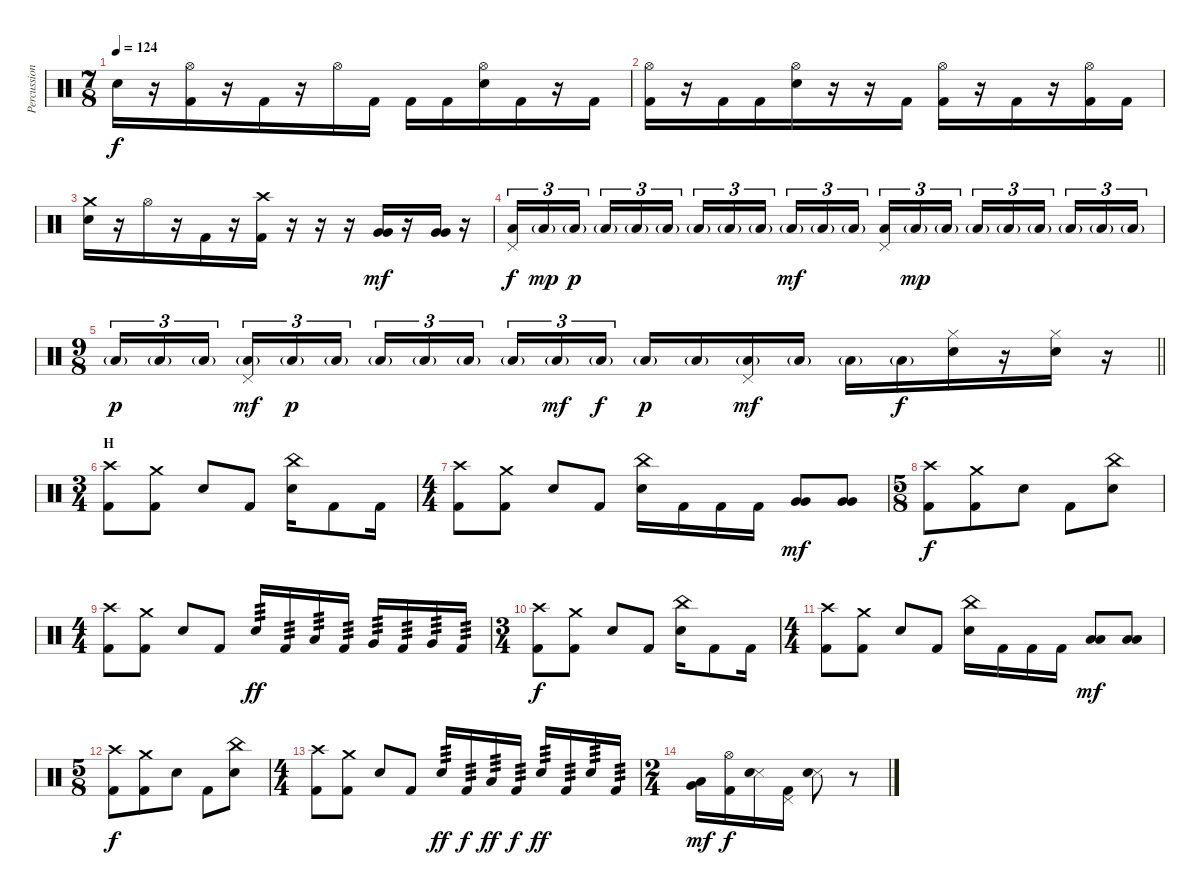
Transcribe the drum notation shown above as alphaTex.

\track ("Percussion" "Percussion") {instrument percussion}
\staff {score}
\articulation defaults
\ts (7 8)
\tempo 124
\clef neutral
\ks c "Snare (hit) 2".16{dy f}
r.16 ("Hi-Hat (open)" "Kick (hit) 2").16 r.16 "Kick (hit) 2".16 r.16 "Hi-Hat (open)".16 "Kick (hit) 2".16 "Kick (hit) 2".16 "Kick (hit) 2".16 ("Hi-Hat (open)" "Snare (hit) 2").16 "Kick (hit) 2".16 r.16 "Kick (hit) 2".16 |
("Hi-Hat (open)" "Kick (hit) 2").16 r.16 "Kick (hit) 2".16 "Kick (hit) 2".16 ("Hi-Hat (open)" "Snare (hit) 2").16 r.16 r.16 "Kick (hit) 2".16 ("Hi-Hat (open)" "Kick (hit) 2").16 r.16 "Kick (hit) 2".16 r.16 ("Hi-Hat (open)" "Kick (hit) 2").16 "Kick (hit) 2".16 |
("Crash medium (hit)" "Snare (hit) 2").16 r.16 "Hi-Hat (open)".16 r.16 "Kick (hit) 2".16 r.16 ("Crash high (hit)" "Kick (hit) 2").16 r.16 r.16 r.16 ("Very Low Tom (hit)" "Very Low Tom (hit)").16{bu 60 dy mf} r.16 ("Very Low Tom (hit)" "Very Low Tom (hit)").16{bu 60} r.16 |
("Pedal Hi-Hat (hit)" "Low Tom (hit)").16{tu (3 2) dy f} "Low Tom (hit)"{g}.16{tu (3 2) dy mp} "Low Tom (hit)"{g}.16{tu (3 2) dy p} "Low Tom (hit)"{g}.16{tu (3 2)} "Low Tom (hit)"{g}.16{tu (3 2)} "Low Tom (hit)"{g}.16{tu (3 2)} "Low Tom (hit)"{g}.16{tu (3 2)} "Low Tom (hit)"{g}.16{tu (3 2)} "Low Tom (hit)"{g}.16{tu (3 2)} "Low Tom (hit)"{g}.16{tu (3 2) dy mf} "Low Tom (hit)"{g}.16{tu (3 2)} "Low Tom (hit)"{g}.16{tu (3 2)} ("Pedal Hi-Hat (hit)" "Low Tom (hit)").16{tu (3 2)} "Low Tom (hit)"{g}.16{tu (3 2) dy mp} "Low Tom (hit)"{g}.16{tu (3 2)} "Low Tom (hit)"{g}.16{tu (3 2)} "Low Tom (hit)"{g}.16{tu (3 2)} "Low Tom (hit)"{g}.16{tu (3 2)} "Low Tom (hit)"{g}.16{tu (3 2)} "Low Tom (hit)"{g}.16{tu (3 2)} "Low Tom (hit)"{g}.16{tu (3 2)} |
\ts (9 8)
\barLineRight lightlight "Low Tom (hit)"{g}.16{tu (3 2) dy p} "Low Tom (hit)"{g}.16{tu (3 2)} "Low Tom (hit)"{g}.16{tu (3 2) beam splitsecondary}
("Pedal Hi-Hat (hit)" "Low Tom (hit)"{g}).16{tu (3 2) dy mf} "Low Tom (hit)"{g}.16{tu (3 2) dy p} "Low Tom (hit)"{g}.16{tu (3 2) beam splitsecondary} "Low Tom (hit)"{g}.16{tu (3 2)} "Low Tom (hit)"{g}.16{tu (3 2)} "Low Tom (hit)"{g}.16{tu (3 2)} "Low Tom (hit)"{g}.16{tu (3 2)} "Low Tom (hit)"{g}.16{tu (3 2) dy mf} "Low Tom (hit)"{g}.16{tu (3 2) dy f beam splitsecondary} "Low Tom (hit)"{g}.16{dy p} "Low Tom (hit)"{g}.16 ("Pedal Hi-Hat (hit)" "Low Tom (hit)"{g}).16{dy mf} "Low Tom (hit)"{g}.16 "Low Tom (hit)"{g}.16 "Low Tom (hit)"{g}.16{dy f} ("Hi-Hat (closed)" "Snare (hit) 2").16 r.16 ("Hi-Hat (closed)" "Snare (hit) 2").16 r.16 |
\ts (3 4)
\section ("" "H")
("Crash high (hit)" "Kick (hit) 2").8 ("Crash medium (hit)" "Kick (hit) 2").8 "Snare (hit)".8 "Kick (hit) 2".8 ("China (hit)" "Snare (hit) 2").16 "Kick (hit) 2".8 "Kick (hit) 2".16 |
\ts (4 4)
("Crash high (hit)" "Kick (hit) 2").8 ("Crash medium (hit)" "Kick (hit) 2").8 "Snare (hit)".8 "Kick (hit) 2".8 ("China (hit)" "Snare (hit) 2").16 "Kick (hit) 2".16 "Kick (hit) 2".16 "Kick (hit) 2".16 ("Very Low Tom (hit)" "Very Low Tom (hit)").8{bu 60 dy mf} ("Very Low Tom (hit)" "Very Low Tom (hit)").8{bu 60} |
\ts (5 8)
("Crash high (hit)" "Kick (hit) 2").8{dy f} ("Crash medium (hit)" "Kick (hit) 2").8 "Snare (hit)".8 "Kick (hit) 2".8 ("China (hit)" "Snare (hit) 2").8 |
\ts (4 4)
("Crash high (hit)" "Kick (hit) 2").8 ("Crash medium (hit)" "Kick (hit) 2").8 "Snare (hit)".8 "Kick (hit) 2".8 "Snare (hit) 2".16{tp 3 dy ff} "Kick (hit) 2".16{tp 3} "Low Tom (hit)".16{tp 3} "Kick (hit) 2".16{tp 3} "Very Low Tom (hit)".16{tp 3} "Kick (hit) 2".16{tp 3} "Very Low Tom (hit)".16{tp 3} "Kick (hit) 2".16{tp 3} |
\ts (3 4)
("Crash high (hit)" "Kick (hit) 2").8{dy f} ("Crash medium (hit)" "Kick (hit) 2").8 "Snare (hit)".8 "Kick (hit) 2".8 ("China (hit)" "Snare (hit) 2").16 "Kick (hit) 2".8 "Kick (hit) 2".16 |
\ts (4 4)
("Crash high (hit)" "Kick (hit) 2").8 ("Crash medium (hit)" "Kick (hit) 2").8 "Snare (hit)".8 "Kick (hit) 2".8 ("China (hit)" "Snare (hit) 2").16 "Kick (hit) 2".16 "Kick (hit) 2".16 "Kick (hit) 2".16 ("Low Tom (hit)" "Low Tom (hit)").8{bu 60 dy mf} ("Low Tom (hit)" "Low Tom (hit)").8{bu 60} |
\ts (5 8)
("Crash high (hit)" "Kick (hit) 2").8{dy f} ("Crash medium (hit)" "Kick (hit) 2").8 "Snare (hit)".8 "Kick (hit) 2".8 ("China (hit)" "Snare (hit) 2").8 |
\ts (4 4)
("Crash high (hit)" "Kick (hit) 2").8 ("Crash medium (hit)" "Kick (hit) 2").8 "Snare (hit)".8 "Kick (hit) 2".8 "Snare (hit) 2".16{tp 3 dy ff} "Kick (hit) 2".16{tp 3 dy f} "Low Tom (hit)".16{tp 3 dy ff} "Kick (hit) 2".16{tp 3 dy f} "Snare (hit) 2".16{tp 3 dy ff} "Kick (hit) 2".16{tp 3} "Snare (hit) 2".16{tp 3} "Kick (hit) 2".16{tp 3} |
\ts (2 4)
("Low Tom (hit)" "Very Low Tom (hit)").16{bu 60 dy mf} ("Hi-Hat (open)" "Kick (hit) 2").16{dy f} ("Metronome (hit)" "Snare (hit) 2").16{bu 60} ("Pedal Hi-Hat (hit)" "Kick (hit) 2").16 ("Metronome (hit)" "Snare (hit) 2").8{bu 60} r.8
